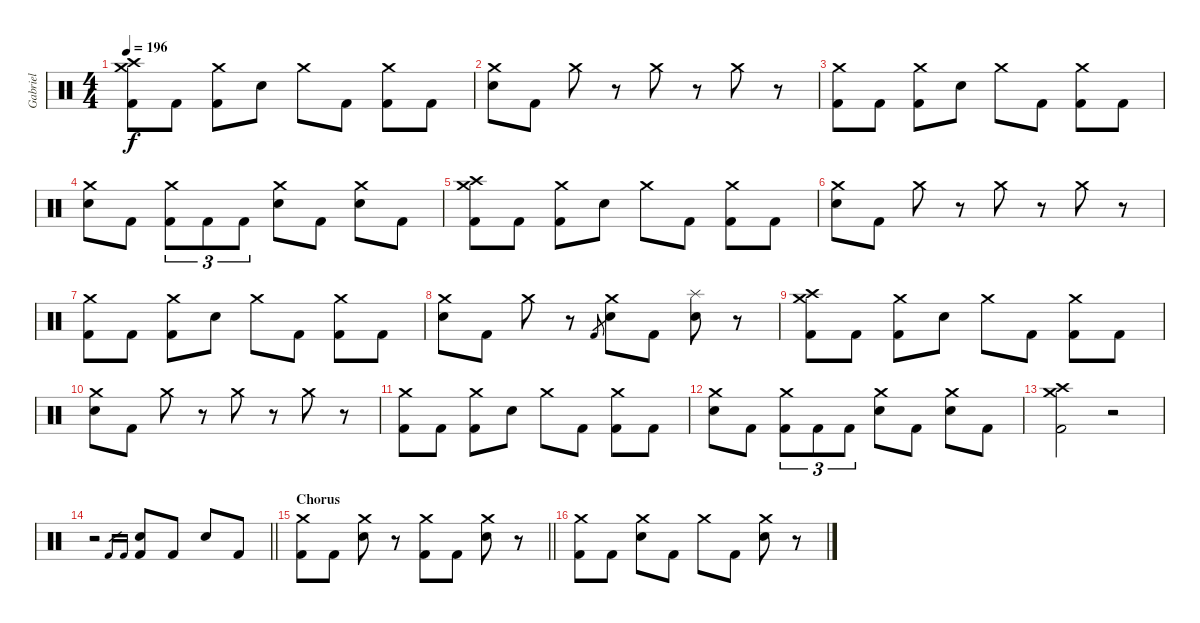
\track ("Gabriel" "Gabriel") {instrument percussion}
\staff {score}
\articulation defaults
\ts (4 4)
\tempo 196
\clef neutral
\ks c
("Crash medium (hit)" "Crash high (hit)" "Kick (hit) 2").8{dy f} "Kick (hit) 2".8 ("Crash medium (hit)" "Kick (hit) 2").8 "Electric Snare (hit)".8 "Crash medium (hit)".8 "Kick (hit) 2".8 ("Crash medium (hit)" "Kick (hit) 2").8 "Kick (hit) 2".8 |
("Crash medium (hit)" "Electric Snare (hit)").8 "Kick (hit) 2".8 "Crash medium (hit)".8 r.8 "Crash medium (hit)".8 r.8 "Crash medium (hit)".8 r.8 |
("Crash medium (hit)" "Kick (hit) 2").8 "Kick (hit) 2".8 ("Crash medium (hit)" "Kick (hit) 2").8 "Electric Snare (hit)".8 "Crash medium (hit)".8 "Kick (hit) 2".8 ("Crash medium (hit)" "Kick (hit) 2").8 "Kick (hit) 2".8 |
("Crash medium (hit)" "Electric Snare (hit)").8 "Kick (hit) 2".8 ("Crash medium (hit)" "Kick (hit) 2").8{tu (3 2)} "Kick (hit) 2".8{tu (3 2)} "Kick (hit) 2".8{tu (3 2)} ("Crash medium (hit)" "Electric Snare (hit)").8 "Kick (hit) 2".8 ("Crash medium (hit)" "Electric Snare (hit)").8 "Kick (hit) 2".8 |
("Crash medium (hit)" "Crash high (hit)" "Kick (hit) 2").8 "Kick (hit) 2".8 ("Crash medium (hit)" "Kick (hit) 2").8 "Electric Snare (hit)".8 "Crash medium (hit)".8 "Kick (hit) 2".8 ("Crash medium (hit)" "Kick (hit) 2").8 "Kick (hit) 2".8 |
("Crash medium (hit)" "Electric Snare (hit)").8 "Kick (hit) 2".8 "Crash medium (hit)".8 r.8 "Crash medium (hit)".8 r.8 "Crash medium (hit)".8 r.8 |
("Crash medium (hit)" "Kick (hit) 2").8 "Kick (hit) 2".8 ("Crash medium (hit)" "Kick (hit) 2").8 "Electric Snare (hit)".8 "Crash medium (hit)".8 "Kick (hit) 2".8 ("Crash medium (hit)" "Kick (hit) 2").8 "Kick (hit) 2".8 |
("Crash medium (hit)" "Electric Snare (hit)").8 "Kick (hit) 2".8 "Crash medium (hit)".8 r.8 "Kick (hit) 2".8{gr} ("Crash medium (hit)" "Electric Snare (hit)").8 "Kick (hit) 2".8 ("Splash (hit)" "Electric Snare (hit)").8 r.8 |
("Crash medium (hit)" "Crash high (hit)" "Kick (hit) 2").8 "Kick (hit) 2".8 ("Crash medium (hit)" "Kick (hit) 2").8 "Electric Snare (hit)".8 "Crash medium (hit)".8 "Kick (hit) 2".8 ("Crash medium (hit)" "Kick (hit) 2").8 "Kick (hit) 2".8 |
("Crash medium (hit)" "Electric Snare (hit)").8 "Kick (hit) 2".8 "Crash medium (hit)".8 r.8 "Crash medium (hit)".8 r.8 "Crash medium (hit)".8 r.8 |
("Crash medium (hit)" "Kick (hit) 2").8 "Kick (hit) 2".8 ("Crash medium (hit)" "Kick (hit) 2").8 "Electric Snare (hit)".8 "Crash medium (hit)".8 "Kick (hit) 2".8 ("Crash medium (hit)" "Kick (hit) 2").8 "Kick (hit) 2".8 |
("Crash medium (hit)" "Electric Snare (hit)").8 "Kick (hit) 2".8 ("Crash medium (hit)" "Kick (hit) 2").8{tu (3 2)} "Kick (hit) 2".8{tu (3 2)} "Kick (hit) 2".8{tu (3 2)} ("Crash medium (hit)" "Electric Snare (hit)").8 "Kick (hit) 2".8 ("Crash medium (hit)" "Electric Snare (hit)").8 "Kick (hit) 2".8 |
("Crash medium (hit)" "Crash high (hit)" "Kick (hit) 2").2 r.2 |
\barLineRight lightlight
r.2 "Kick (hit) 2".16{gr} "Kick (hit) 2".16{gr} ("Electric Snare (hit)" "Kick (hit) 2").8 "Kick (hit) 2".8 "Electric Snare (hit)".8 "Kick (hit) 2".8 |
\section ("" "Chorus")
\barLineRight lightlight
("Crash medium (hit)" "Kick (hit) 2").8 "Kick (hit) 2".8 ("Crash medium (hit)" "Electric Snare (hit)").8 r.8 ("Crash medium (hit)" "Kick (hit) 2").8 "Kick (hit) 2".8 ("Crash medium (hit)" "Electric Snare (hit)").8 r.8 |
("Crash medium (hit)" "Kick (hit) 2").8 "Kick (hit) 2".8 ("Crash medium (hit)" "Electric Snare (hit)").8 "Kick (hit) 2".8 "Crash medium (hit)".8 "Kick (hit) 2".8 ("Crash medium (hit)" "Electric Snare (hit)").8 r.8
